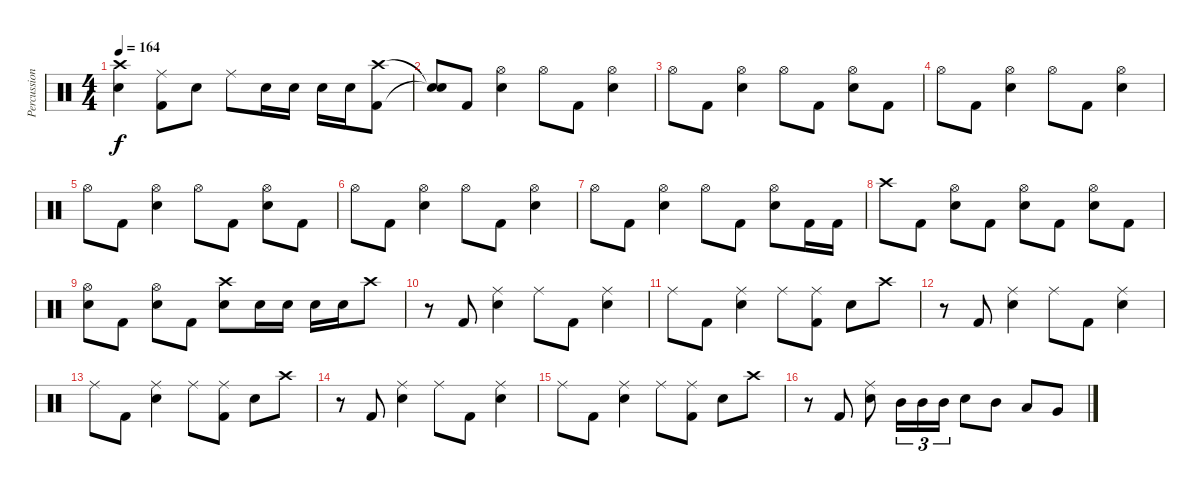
\track ("Percussion" "Percussion") {instrument percussion}
\staff {score}
\articulation defaults
\ts (4 4)
\tempo 164
\clef neutral
\ks c
("Crash high (hit)" "Snare (hit) 2").4{dy f} ("Ride (middle)" "Kick (hit) 2").8 "Snare (hit) 2".8 "Ride (middle)".8 "Snare (hit) 2".16 "Snare (hit) 2".16 "Snare (hit) 2".16 "Snare (hit) 2".16 ("Crash high (hit)" "Kick (hit) 2").8 |
("Snare (hit)"{t} "Snare (hit)"{t}).8 "Kick (hit) 2".8 ("Hi-Hat (open)" "Snare (hit) 2").4 "Hi-Hat (open)".8 "Kick (hit) 2".8 ("Hi-Hat (open)" "Snare (hit) 2").4 |
"Hi-Hat (open)".8 "Kick (hit) 2".8 ("Hi-Hat (open)" "Snare (hit) 2").4 "Hi-Hat (open)".8 "Kick (hit) 2".8 ("Hi-Hat (open)" "Snare (hit) 2").8 "Kick (hit) 2".8 |
"Hi-Hat (open)".8 "Kick (hit) 2".8 ("Hi-Hat (open)" "Snare (hit) 2").4 "Hi-Hat (open)".8 "Kick (hit) 2".8 ("Hi-Hat (open)" "Snare (hit) 2").4 |
"Hi-Hat (open)".8 "Kick (hit) 2".8 ("Hi-Hat (open)" "Snare (hit) 2").4 "Hi-Hat (open)".8 "Kick (hit) 2".8 ("Hi-Hat (open)" "Snare (hit) 2").8 "Kick (hit) 2".8 |
"Hi-Hat (open)".8 "Kick (hit) 2".8 ("Hi-Hat (open)" "Snare (hit) 2").4 "Hi-Hat (open)".8 "Kick (hit) 2".8 ("Hi-Hat (open)" "Snare (hit) 2").4 |
"Hi-Hat (open)".8 "Kick (hit) 2".8 ("Hi-Hat (open)" "Snare (hit) 2").4 "Hi-Hat (open)".8 "Kick (hit) 2".8 ("Hi-Hat (open)" "Snare (hit) 2").8 "Kick (hit) 2".16 "Kick (hit) 2".16 |
"Crash high (hit)".8 "Kick (hit) 2".8 ("Hi-Hat (open)" "Snare (hit) 2").8 "Kick (hit) 2".8 ("Hi-Hat (open)" "Snare (hit) 2").8 "Kick (hit) 2".8 ("Hi-Hat (open)" "Snare (hit) 2").8 "Kick (hit) 2".8 |
("Hi-Hat (open)" "Snare (hit) 2").8 "Kick (hit) 2".8 ("Hi-Hat (open)" "Snare (hit) 2").8 "Kick (hit) 2".8 ("Crash high (hit)" "Snare (hit) 2").8 "Snare (hit) 2".16 "Snare (hit) 2".16 "Snare (hit) 2".16 "Snare (hit) 2".16 "Crash high (hit)".8 |
r.8 "Kick (hit) 2".8 ("Ride (middle)" "Snare (hit) 2").4 "Ride (middle)".8 "Kick (hit) 2".8 ("Ride (middle)" "Snare (hit) 2").4 |
"Ride (middle)".8 "Kick (hit) 2".8 ("Ride (middle)" "Snare (hit) 2").4 "Ride (middle)".8 ("Ride (middle)" "Kick (hit) 2").8 "Snare (hit) 2".8 "Crash high (hit)".8 |
r.8 "Kick (hit) 2".8 ("Ride (middle)" "Snare (hit) 2").4 "Ride (middle)".8 "Kick (hit) 2".8 ("Ride (middle)" "Snare (hit) 2").4 |
"Ride (middle)".8 "Kick (hit) 2".8 ("Ride (middle)" "Snare (hit) 2").4 "Ride (middle)".8 ("Ride (middle)" "Kick (hit) 2").8 "Snare (hit) 2".8 "Crash high (hit)".8 |
r.8 "Kick (hit) 2".8 ("Ride (middle)" "Snare (hit) 2").4 "Ride (middle)".8 "Kick (hit) 2".8 ("Ride (middle)" "Snare (hit) 2").4 |
"Ride (middle)".8 "Kick (hit) 2".8 ("Ride (middle)" "Snare (hit) 2").4 "Ride (middle)".8 ("Ride (middle)" "Kick (hit) 2").8 "Snare (hit) 2".8 "Crash high (hit)".8 |
r.8 "Kick (hit) 2".8 ("Ride (middle)" "Snare (hit) 2").8 "Mid Tom (hit)".16{tu (3 2)} "Mid Tom (hit)".16{tu (3 2)} "Mid Tom (hit)".16{tu (3 2)} "Snare (hit) 2".8 "Mid Tom (hit)".8 "Low Tom (hit)".8 "Very Low Tom (hit)".8
